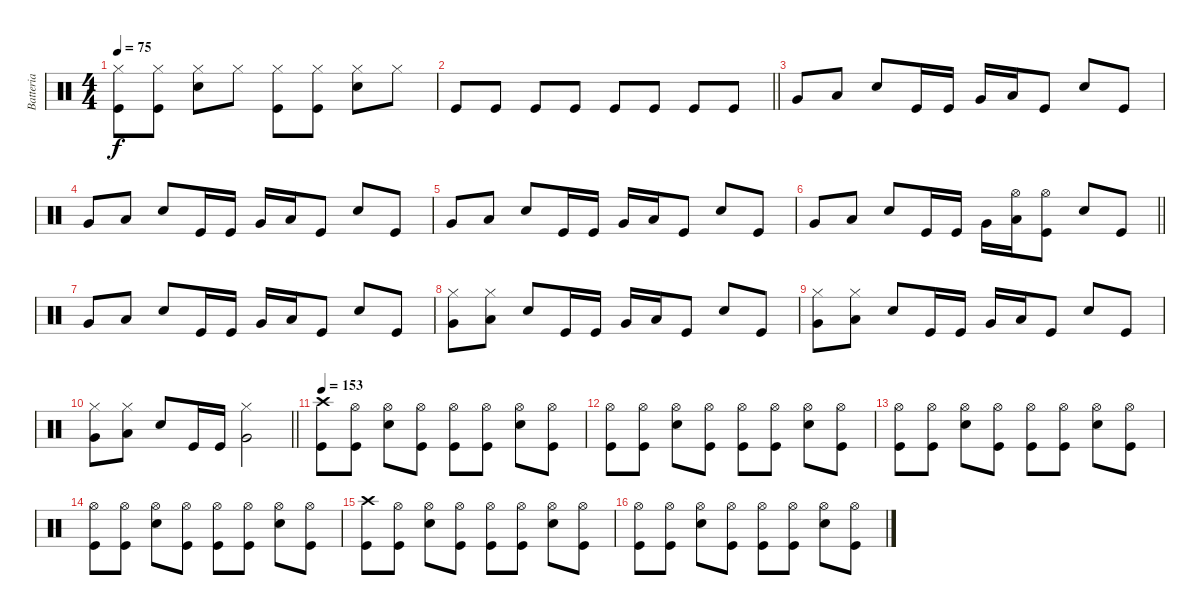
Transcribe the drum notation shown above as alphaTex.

\track ("Batteria" "Batteria") {instrument percussion}
\staff {score}
\articulation defaults
\ts (4 4)
\tempo 75
\clef neutral
\ks c
("Hi-Hat (closed)" "Kick (hit)").8{dy f} ("Hi-Hat (closed)" "Kick (hit)").8 ("Hi-Hat (closed)" "Snare (hit) 2").8 "Hi-Hat (closed)".8 ("Hi-Hat (closed)" "Kick (hit)").8 ("Hi-Hat (closed)" "Kick (hit)").8 ("Hi-Hat (closed)" "Snare (hit) 2").8 "Hi-Hat (closed)".8 |
\barLineRight lightlight "Kick (hit)".8 "Kick (hit)".8 "Kick (hit)".8 "Kick (hit)".8 "Kick (hit)".8 "Kick (hit)".8 "Kick (hit)".8 "Kick (hit)".8
|
"Very Low Tom (hit)".8 "Low Tom (hit)".8 "Snare (hit) 2".8 "Kick (hit)".16 "Kick (hit)".16 "Very Low Tom (hit)".16 "Low Floor Tom (hit)".16 "Kick (hit)".8 "Snare (hit) 2".8 "Kick (hit)".8 |
"Very Low Tom (hit)".8 "Low Tom (hit)".8 "Snare (hit) 2".8 "Kick (hit)".16 "Kick (hit)".16 "Very Low Tom (hit)".16 "Low Floor Tom (hit)".16 "Kick (hit)".8 "Snare (hit) 2".8 "Kick (hit)".8 |
"Very Low Tom (hit)".8 "Low Tom (hit)".8 "Snare (hit) 2".8 "Kick (hit)".16 "Kick (hit)".16 "Very Low Tom (hit)".16 "Low Floor Tom (hit)".16 "Kick (hit)".8 "Snare (hit) 2".8 "Kick (hit)".8 |
\barLineRight lightlight "Very Low Tom (hit)".8 "Low Tom (hit)".8 "Snare (hit) 2".8 "Kick (hit)".16 "Kick (hit)".16 "Very Low Tom (hit)".16
("Low Floor Tom (hit)" "Hi-Hat (open)").16 ("Kick (hit)" "Hi-Hat (open)").8 "Snare (hit) 2".8 "Kick (hit)".8 |
"Very Low Tom (hit)".8 "Low Tom (hit)".8 "Snare (hit) 2".8 "Kick (hit)".16 "Kick (hit)".16 "Very Low Tom (hit)".16 "Low Floor Tom (hit)".16 "Kick (hit)".8 "Snare (hit) 2".8 "Kick (hit)".8 |
("Very Low Tom (hit)" "Hi-Hat (closed)").8 ("Low Tom (hit)" "Hi-Hat (closed)").8 "Snare (hit) 2".8 "Kick (hit)".16 "Kick (hit)".16 "Very Low Tom (hit)".16 "Low Floor Tom (hit)".16 "Kick (hit)".8 "Snare (hit) 2".8 "Kick (hit)".8 |
("Very Low Tom (hit)" "Hi-Hat (closed)").8 ("Low Tom (hit)" "Hi-Hat (closed)").8 "Snare (hit) 2".8 "Kick (hit)".16 "Kick (hit)".16 "Very Low Tom (hit)".16 "Low Floor Tom (hit)".16 "Kick (hit)".8 "Snare (hit) 2".8 "Kick (hit)".8 |
\barLineRight lightlight
("Very Low Tom (hit)" "Hi-Hat (closed)").8 ("Low Tom (hit)" "Hi-Hat (closed)").8 "Snare (hit) 2".8 "Kick (hit)".16 "Kick (hit)".16 ("Very Low Tom (hit)" "Hi-Hat (closed)").2 |
\tempo 153
("Kick (hit)" "Crash high (hit)").8 ("Kick (hit)" "Hi-Hat (open)").8 ("Snare (hit) 2" "Hi-Hat (open)").8 ("Kick (hit)" "Hi-Hat (open)").8 ("Kick (hit)" "Hi-Hat (open)").8 ("Kick (hit)" "Hi-Hat (open)").8 ("Snare (hit) 2" "Hi-Hat (open)").8 ("Kick (hit)" "Hi-Hat (open)").8 |
("Kick (hit)" "Hi-Hat (open)").8 ("Kick (hit)" "Hi-Hat (open)").8 ("Snare (hit) 2" "Hi-Hat (open)").8 ("Kick (hit)" "Hi-Hat (open)").8 ("Kick (hit)" "Hi-Hat (open)").8 ("Kick (hit)" "Hi-Hat (open)").8 ("Snare (hit) 2" "Hi-Hat (open)").8 ("Kick (hit)" "Hi-Hat (open)").8 |
("Kick (hit)" "Hi-Hat (open)").8 ("Kick (hit)" "Hi-Hat (open)").8 ("Snare (hit) 2" "Hi-Hat (open)").8 ("Kick (hit)" "Hi-Hat (open)").8 ("Kick (hit)" "Hi-Hat (open)").8 ("Kick (hit)" "Hi-Hat (open)").8 ("Snare (hit) 2" "Hi-Hat (open)").8 ("Kick (hit)" "Hi-Hat (open)").8 |
("Kick (hit)" "Hi-Hat (open)").8 ("Kick (hit)" "Hi-Hat (open)").8 ("Snare (hit) 2" "Hi-Hat (open)").8 ("Kick (hit)" "Hi-Hat (open)").8 ("Kick (hit)" "Hi-Hat (open)").8 ("Kick (hit)" "Hi-Hat (open)").8 ("Snare (hit) 2" "Hi-Hat (open)").8 ("Kick (hit)" "Hi-Hat (open)").8 |
("Kick (hit)" "Crash high (hit)").8 ("Kick (hit)" "Hi-Hat (open)").8 ("Snare (hit) 2" "Hi-Hat (open)").8 ("Kick (hit)" "Hi-Hat (open)").8 ("Kick (hit)" "Hi-Hat (open)").8 ("Kick (hit)" "Hi-Hat (open)").8 ("Snare (hit) 2" "Hi-Hat (open)").8 ("Kick (hit)" "Hi-Hat (open)").8 |
("Kick (hit)" "Hi-Hat (open)").8 ("Kick (hit)" "Hi-Hat (open)").8 ("Snare (hit) 2" "Hi-Hat (open)").8 ("Kick (hit)" "Hi-Hat (open)").8 ("Kick (hit)" "Hi-Hat (open)").8 ("Kick (hit)" "Hi-Hat (open)").8 ("Snare (hit) 2" "Hi-Hat (open)").8 ("Kick (hit)" "Hi-Hat (open)").8
